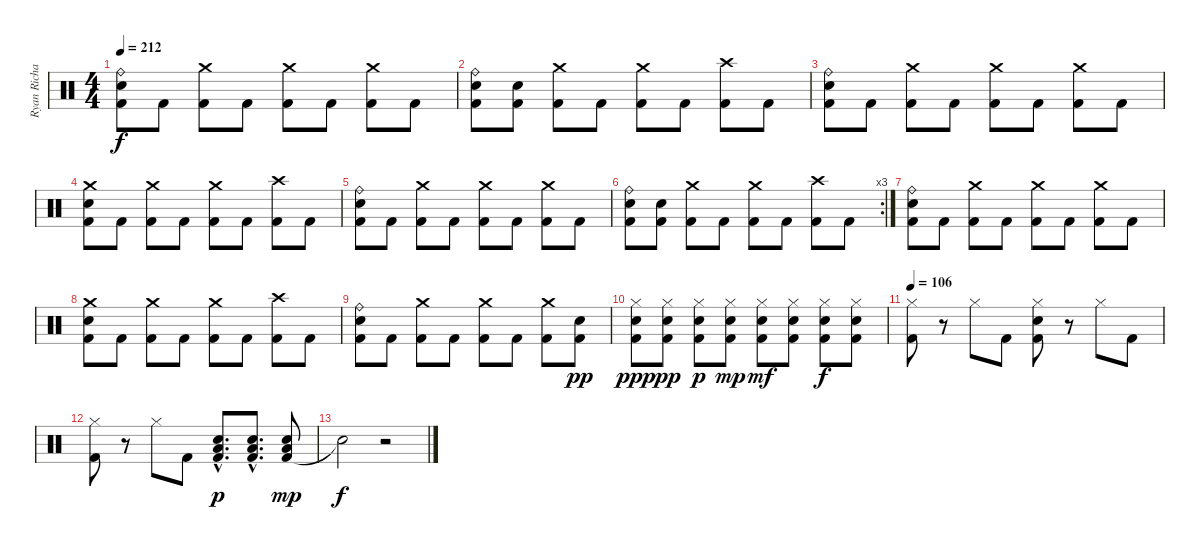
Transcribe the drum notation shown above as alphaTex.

\track ("Ryan Richards" "Ryan Richa") {instrument percussion}
\staff {score}
\articulation defaults
\ts (4 4)
\tempo 212
\clef neutral
\ks c
("Kick (hit) 2" "Snare (hit) 2" "Ride (bell)").8{dy f} "Kick (hit) 2".8 ("Kick (hit) 2" "Crash medium (hit)").8 "Kick (hit) 2".8 ("Kick (hit) 2" "Crash medium (hit)").8 "Kick (hit) 2".8 ("Kick (hit) 2" "Crash medium (hit)").8 "Kick (hit) 2".8 |
("Kick (hit) 2" "Snare (hit) 2" "Ride (bell)").8 ("Kick (hit) 2" "Snare (hit) 2").8 ("Kick (hit) 2" "Crash medium (hit)").8 "Kick (hit) 2".8 ("Kick (hit) 2" "Crash medium (hit)").8 "Kick (hit) 2".8 ("Kick (hit) 2" "Crash high (hit)").8 "Kick (hit) 2".8 |
("Kick (hit) 2" "Snare (hit) 2" "Ride (bell)").8 "Kick (hit) 2".8 ("Kick (hit) 2" "Crash medium (hit)").8 "Kick (hit) 2".8 ("Kick (hit) 2" "Crash medium (hit)").8 "Kick (hit) 2".8 ("Kick (hit) 2" "Crash medium (hit)").8 "Kick (hit) 2".8 |
("Kick (hit) 2" "Snare (hit) 2" "Crash medium (hit)").8 "Kick (hit) 2".8 ("Kick (hit) 2" "Crash medium (hit)").8 "Kick (hit) 2".8 ("Kick (hit) 2" "Crash medium (hit)").8 "Kick (hit) 2".8 ("Kick (hit) 2" "Crash high (hit)").8 "Kick (hit) 2".8 |
("Kick (hit) 2" "Snare (hit) 2" "Ride (bell)").8 "Kick (hit) 2".8 ("Kick (hit) 2" "Crash medium (hit)").8 "Kick (hit) 2".8 ("Kick (hit) 2" "Crash medium (hit)").8 "Kick (hit) 2".8 ("Kick (hit) 2" "Crash medium (hit)").8 "Kick (hit) 2".8 |
\rc 3
("Kick (hit) 2" "Snare (hit) 2" "Ride (bell)").8 ("Kick (hit) 2" "Snare (hit) 2").8 ("Kick (hit) 2" "Crash medium (hit)").8 "Kick (hit) 2".8 ("Kick (hit) 2" "Crash medium (hit)").8 "Kick (hit) 2".8 ("Kick (hit) 2" "Crash high (hit)").8 "Kick (hit) 2".8 |
("Kick (hit) 2" "Snare (hit) 2" "Ride (bell)").8 "Kick (hit) 2".8 ("Kick (hit) 2" "Crash medium (hit)").8 "Kick (hit) 2".8 ("Kick (hit) 2" "Crash medium (hit)").8 "Kick (hit) 2".8 ("Kick (hit) 2" "Crash medium (hit)").8 "Kick (hit) 2".8 |
("Kick (hit) 2" "Snare (hit) 2" "Crash medium (hit)").8 "Kick (hit) 2".8 ("Kick (hit) 2" "Crash medium (hit)").8 "Kick (hit) 2".8 ("Kick (hit) 2" "Crash medium (hit)").8 "Kick (hit) 2".8 ("Kick (hit) 2" "Crash high (hit)").8 "Kick (hit) 2".8 |
("Kick (hit) 2" "Snare (hit) 2" "Ride (bell)").8 "Kick (hit) 2".8 ("Kick (hit) 2" "Crash medium (hit)").8 "Kick (hit) 2".8 ("Kick (hit) 2" "Crash medium (hit)").8 "Kick (hit) 2".8 ("Kick (hit) 2" "Crash medium (hit)").8 ("Kick (hit) 2" "Snare (hit) 2").8{dy pp} |
("Kick (hit) 2" "Snare (hit) 2" "Hi-Hat (closed)").8{dy ppp} ("Kick (hit) 2" "Snare (hit) 2" "Hi-Hat (closed)").8{dy pp} ("Kick (hit) 2" "Snare (hit) 2" "Hi-Hat (closed)").8{dy p} ("Kick (hit) 2" "Snare (hit) 2" "Hi-Hat (closed)").8{dy mp} ("Kick (hit) 2" "Snare (hit) 2" "Hi-Hat (closed)").8{dy mf} ("Kick (hit) 2" "Snare (hit) 2" "Hi-Hat (closed)").8 ("Kick (hit) 2" "Snare (hit) 2" "Hi-Hat (closed)").8{dy f} ("Kick (hit) 2" "Snare (hit) 2" "Hi-Hat (closed)").8 |
\tempo 106
("Kick (hit) 2" "Hi-Hat (closed)"{pm}).8 r.8 "Hi-Hat (closed)".8 "Kick (hit) 2".8 ("Kick (hit) 2" "Snare (hit) 2" "Hi-Hat (closed)").8 r.8 "Hi-Hat (closed)".8 "Kick (hit) 2".8 |
("Kick (hit) 2" "Hi-Hat (closed)").8 r.8 "Hi-Hat (closed)".8 "Kick (hit) 2".8 ("Kick (hit) 2"{hac} "Snare (hit) 2"{hac} "Low Floor Tom (hit)"{hac}).8{d dy p} ("Kick (hit) 2"{hac} "Snare (hit) 2"{hac} "Low Floor Tom (hit)"{hac}).8{d} ("Kick (hit) 2" "Snare (hit) 2" "Low Floor Tom (hit)").8{dy mp} |
"Snare (hit)"{t}.2{dy f} r.2
